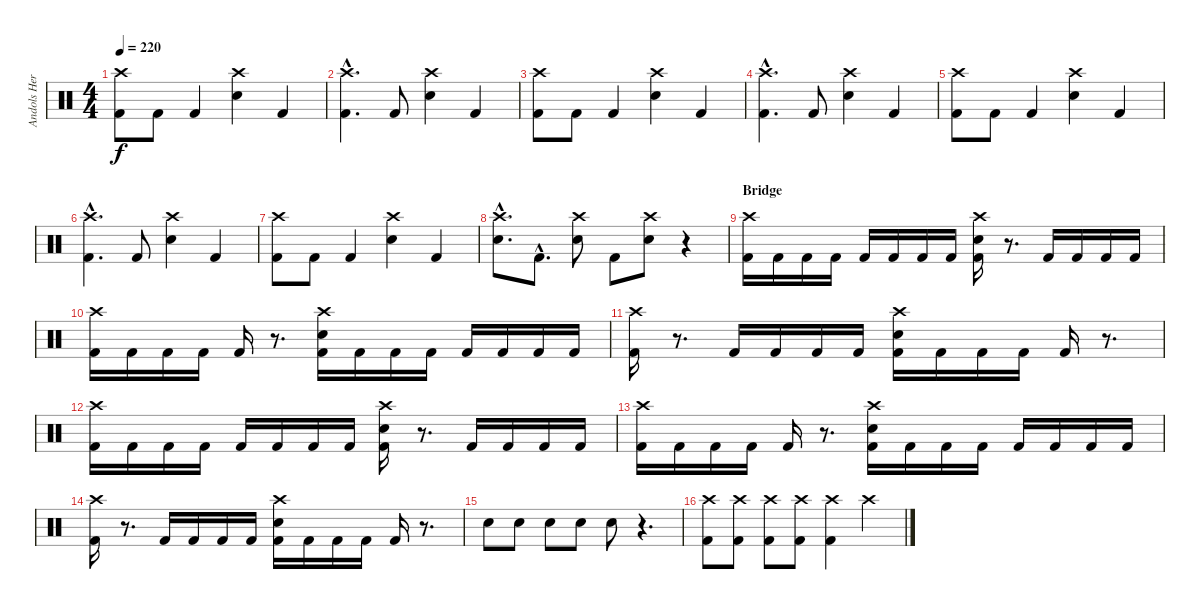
\track ("Andols Herrick - Drums" "Andols Her") {instrument percussion}
\staff {score}
\articulation defaults
\ts (4 4)
\tempo 220
\clef neutral
\ks c
("Crash high (hit)" "Kick (hit) 2").8{dy f} "Kick (hit) 2".8 "Kick (hit) 2".4 ("Crash high (hit)" "Snare (hit) 2").4 "Kick (hit) 2".4 |
("Crash high (hit)"{hac} "Kick (hit) 2"{hac}).4{d} "Kick (hit) 2".8 ("Crash high (hit)" "Snare (hit) 2").4 "Kick (hit) 2".4 |
("Crash high (hit)" "Kick (hit) 2").8 "Kick (hit) 2".8 "Kick (hit) 2".4 ("Crash high (hit)" "Snare (hit) 2").4 "Kick (hit) 2".4 |
("Crash high (hit)"{hac} "Kick (hit) 2"{hac}).4{d} "Kick (hit) 2".8 ("Crash high (hit)" "Snare (hit) 2").4 "Kick (hit) 2".4 |
("Crash high (hit)" "Kick (hit) 2").8 "Kick (hit) 2".8 "Kick (hit) 2".4 ("Crash high (hit)" "Snare (hit) 2").4 "Kick (hit) 2".4 |
("Crash high (hit)"{hac} "Kick (hit) 2"{hac}).4{d} "Kick (hit) 2".8 ("Crash high (hit)" "Snare (hit) 2").4 "Kick (hit) 2".4 |
("Crash high (hit)" "Kick (hit) 2").8 "Kick (hit) 2".8 "Kick (hit) 2".4 ("Crash high (hit)" "Snare (hit) 2").4 "Kick (hit) 2".4 |
("Crash high (hit)"{hac} "Snare (hit) 2"{hac}).8{d} "Kick (hit) 2"{hac}.8{d} ("Crash high (hit)" "Snare (hit) 2").8 "Kick (hit) 2".8 ("Crash high (hit)" "Snare (hit) 2").8 r.4 |
\section ("" "Bridge")
("Crash high (hit)" "Kick (hit) 2").16 "Kick (hit) 2".16 "Kick (hit) 2".16 "Kick (hit) 2".16 "Kick (hit) 2".16 "Kick (hit) 2".16 "Kick (hit) 2".16 "Kick (hit) 2".16 ("Crash high (hit)" "Snare (hit) 2" "Kick (hit) 2").16 r.8{d} "Kick (hit) 2".16 "Kick (hit) 2".16 "Kick (hit) 2".16 "Kick (hit) 2".16 |
("Crash high (hit)" "Kick (hit) 2").16 "Kick (hit) 2".16 "Kick (hit) 2".16 "Kick (hit) 2".16 "Kick (hit) 2".16 r.8{d} ("Crash high (hit)" "Snare (hit) 2" "Kick (hit) 2").16 "Kick (hit) 2".16 "Kick (hit) 2".16 "Kick (hit) 2".16 "Kick (hit) 2".16 "Kick (hit) 2".16 "Kick (hit) 2".16 "Kick (hit) 2".16 |
("Crash high (hit)" "Kick (hit) 2").16 r.8{d} "Kick (hit) 2".16 "Kick (hit) 2".16 "Kick (hit) 2".16 "Kick (hit) 2".16 ("Crash high (hit)" "Snare (hit) 2" "Kick (hit) 2").16 "Kick (hit) 2".16 "Kick (hit) 2".16 "Kick (hit) 2".16 "Kick (hit) 2".16 r.8{d} |
("Crash high (hit)" "Kick (hit) 2").16 "Kick (hit) 2".16 "Kick (hit) 2".16 "Kick (hit) 2".16 "Kick (hit) 2".16 "Kick (hit) 2".16 "Kick (hit) 2".16 "Kick (hit) 2".16 ("Crash high (hit)" "Snare (hit) 2" "Kick (hit) 2").16 r.8{d} "Kick (hit) 2".16 "Kick (hit) 2".16 "Kick (hit) 2".16 "Kick (hit) 2".16 |
("Crash high (hit)" "Kick (hit) 2").16 "Kick (hit) 2".16 "Kick (hit) 2".16 "Kick (hit) 2".16 "Kick (hit) 2".16 r.8{d} ("Crash high (hit)" "Snare (hit) 2" "Kick (hit) 2").16 "Kick (hit) 2".16 "Kick (hit) 2".16 "Kick (hit) 2".16 "Kick (hit) 2".16 "Kick (hit) 2".16 "Kick (hit) 2".16 "Kick (hit) 2".16 |
("Crash high (hit)" "Kick (hit) 2").16 r.8{d} "Kick (hit) 2".16 "Kick (hit) 2".16 "Kick (hit) 2".16 "Kick (hit) 2".16 ("Crash high (hit)" "Snare (hit) 2" "Kick (hit) 2").16 "Kick (hit) 2".16 "Kick (hit) 2".16 "Kick (hit) 2".16 "Kick (hit) 2".16 r.8{d} |
"Snare (hit) 2".8 "Snare (hit) 2".8 "Snare (hit) 2".8 "Snare (hit) 2".8 "Snare (hit) 2".8 r.4{d} |
("Crash high (hit)" "Kick (hit) 2").8 ("Crash high (hit)" "Kick (hit) 2").8 ("Crash high (hit)" "Kick (hit) 2").8 ("Crash high (hit)" "Kick (hit) 2").8 ("Crash high (hit)" "Kick (hit) 2").4 "Crash high (hit)".4
